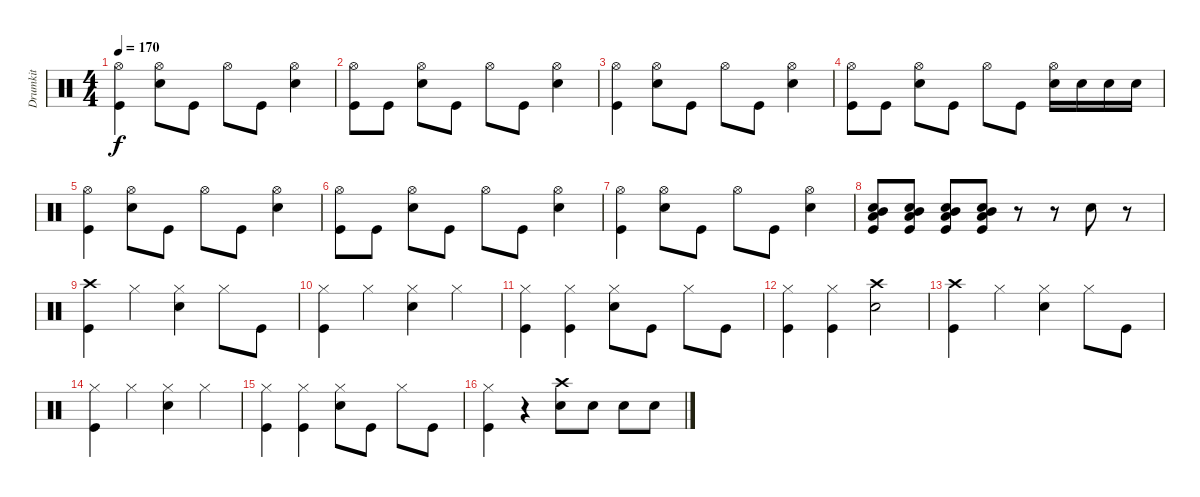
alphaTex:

\track ("Drumkit" "Drumkit") {instrument percussion}
\staff {score}
\articulation defaults
\ts (4 4)
\tempo 170
\clef neutral
\ks c
("Kick (hit)" "Hi-Hat (open)").4{dy f} ("Snare (hit) 2" "Hi-Hat (open)").8 "Kick (hit)".8 "Hi-Hat (open)".8 "Kick (hit)".8 ("Snare (hit) 2" "Hi-Hat (open)").4 |
("Kick (hit)" "Hi-Hat (open)").8 "Kick (hit)".8 ("Snare (hit) 2" "Hi-Hat (open)").8 "Kick (hit)".8 "Hi-Hat (open)".8 "Kick (hit)".8 ("Snare (hit) 2" "Hi-Hat (open)").4 |
("Kick (hit)" "Hi-Hat (open)").4 ("Snare (hit) 2" "Hi-Hat (open)").8 "Kick (hit)".8 "Hi-Hat (open)".8 "Kick (hit)".8 ("Snare (hit) 2" "Hi-Hat (open)").4 |
("Kick (hit)" "Hi-Hat (open)").8 "Kick (hit)".8 ("Snare (hit) 2" "Hi-Hat (open)").8 "Kick (hit)".8 "Hi-Hat (open)".8 "Kick (hit)".8 ("Snare (hit) 2" "Hi-Hat (open)").16 "Snare (hit) 2".16 "Snare (hit) 2".16 "Snare (hit) 2".16 |
("Kick (hit)" "Hi-Hat (open)").4 ("Snare (hit) 2" "Hi-Hat (open)").8 "Kick (hit)".8 "Hi-Hat (open)".8 "Kick (hit)".8 ("Snare (hit) 2" "Hi-Hat (open)").4 |
("Kick (hit)" "Hi-Hat (open)").8 "Kick (hit)".8 ("Snare (hit) 2" "Hi-Hat (open)").8 "Kick (hit)".8 "Hi-Hat (open)".8 "Kick (hit)".8 ("Snare (hit) 2" "Hi-Hat (open)").4 |
("Kick (hit)" "Hi-Hat (open)").4 ("Snare (hit) 2" "Hi-Hat (open)").8 "Kick (hit)".8 "Hi-Hat (open)".8 "Kick (hit)".8 ("Snare (hit) 2" "Hi-Hat (open)").4 |
("Kick (hit)" "Low Tom (hit)" "Mid Tom (hit)" "Snare (hit) 2").8 ("Kick (hit)" "Low Tom (hit)" "Mid Tom (hit)" "Snare (hit) 2").8 ("Kick (hit)" "Low Tom (hit)" "Mid Tom (hit)" "Snare (hit) 2").8 ("Kick (hit)" "Low Tom (hit)" "Mid Tom (hit)" "Snare (hit) 2").8 r.8 r.8 "Snare (hit) 2".8 r.8 |
("Kick (hit)" "Crash high (hit)").4 "Hi-Hat (closed)".4 ("Hi-Hat (closed)" "Snare (hit) 2").4 "Hi-Hat (closed)".8 "Kick (hit)".8 |
("Kick (hit)" "Hi-Hat (closed)").4 "Hi-Hat (closed)".4 ("Hi-Hat (closed)" "Snare (hit) 2").4 "Hi-Hat (closed)".4 |
("Hi-Hat (closed)" "Kick (hit)").4 ("Hi-Hat (closed)" "Kick (hit)").4 ("Hi-Hat (closed)" "Snare (hit) 2").8 "Kick (hit)".8 "Hi-Hat (closed)".8 "Kick (hit)".8 |
("Hi-Hat (closed)" "Kick (hit)").4 ("Hi-Hat (closed)" "Kick (hit)").4 ("Crash high (hit)" "Snare (hit) 2").2 |
("Kick (hit)" "Crash high (hit)").4 "Hi-Hat (closed)".4 ("Hi-Hat (closed)" "Snare (hit) 2").4 "Hi-Hat (closed)".8 "Kick (hit)".8 |
("Kick (hit)" "Hi-Hat (closed)").4 "Hi-Hat (closed)".4 ("Hi-Hat (closed)" "Snare (hit) 2").4 "Hi-Hat (closed)".4 |
("Hi-Hat (closed)" "Kick (hit)").4 ("Hi-Hat (closed)" "Kick (hit)").4 ("Hi-Hat (closed)" "Snare (hit) 2").8 "Kick (hit)".8 "Hi-Hat (closed)".8 "Kick (hit)".8 |
("Hi-Hat (closed)" "Kick (hit)").4 r.4 ("Crash high (hit)" "Snare (hit) 2").8 "Snare (hit) 2".8 "Snare (hit) 2".8 "Snare (hit) 2".8
